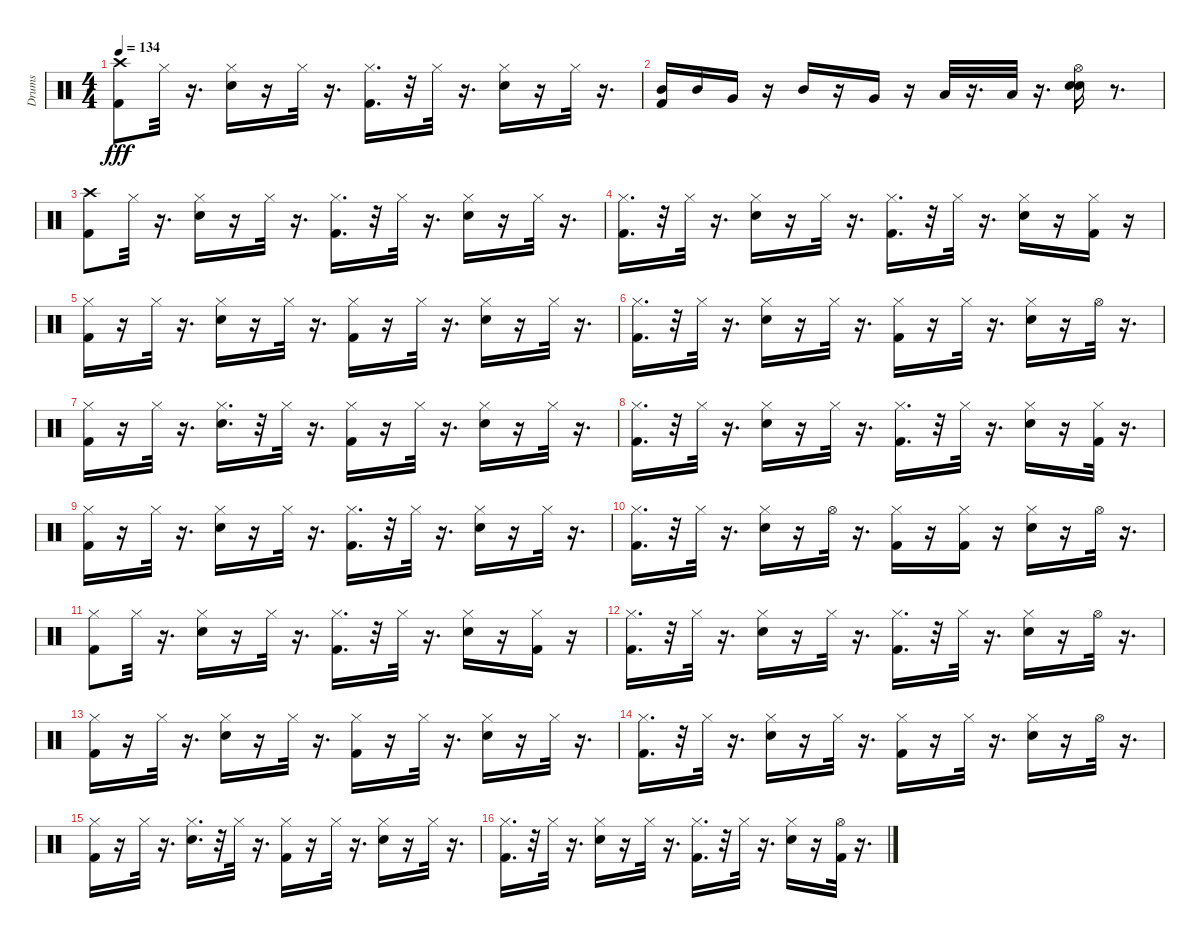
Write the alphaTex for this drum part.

\track ("Drums" "Drums") {instrument percussion}
\staff {score}
\articulation defaults
\ts (4 4)
\tempo 134
\clef neutral
\ks c
("Kick (hit) 2" "Crash high (hit)").8{dy fff} "Hi-Hat (closed)".32 r.16{d} ("Snare (hit) 2" "Hi-Hat (closed)").16 r.16 "Hi-Hat (closed)".32 r.16{d} ("Kick (hit) 2" "Hi-Hat (closed)").16{d} r.32 "Hi-Hat (closed)".32 r.16{d} ("Snare (hit) 2" "Hi-Hat (closed)").16 r.16 "Hi-Hat (closed)".32 r.16{d} |
("Kick (hit) 2" "Mid Tom (hit)").16 "Mid Tom (hit)".16 "Very Low Tom (hit)".16 r.16 "Mid Tom (hit)".16 r.16 "Very Low Tom (hit)".16 r.16 "Low Floor Tom (hit)".32 r.16{d} "Low Floor Tom (hit)".32 r.16{d} ("Snare (hit) 2" "Snare (hit) 2" "Hi-Hat (open)").16 r.8{d} |
("Kick (hit) 2" "Crash high (hit)").8 "Hi-Hat (closed)".32 r.16{d} ("Snare (hit) 2" "Hi-Hat (closed)").16 r.16 "Hi-Hat (closed)".32 r.16{d} ("Kick (hit) 2" "Hi-Hat (closed)").16{d} r.32 "Hi-Hat (closed)".32 r.16{d} ("Snare (hit) 2" "Hi-Hat (closed)").16 r.16 "Hi-Hat (closed)".32 r.16{d} |
("Kick (hit) 2" "Hi-Hat (closed)").16{d} r.32 "Hi-Hat (closed)".32 r.16{d} ("Snare (hit) 2" "Hi-Hat (closed)").16 r.16 "Hi-Hat (closed)".32 r.16{d} ("Kick (hit) 2" "Hi-Hat (closed)").16{d} r.32 "Hi-Hat (closed)".32 r.16{d} ("Snare (hit) 2" "Hi-Hat (closed)").16 r.16 ("Kick (hit) 2" "Hi-Hat (closed)").16 r.16 |
("Kick (hit) 2" "Hi-Hat (closed)").16 r.16 "Hi-Hat (closed)".32 r.16{d} ("Snare (hit) 2" "Hi-Hat (closed)").16 r.16 "Hi-Hat (closed)".32 r.16{d} ("Kick (hit) 2" "Hi-Hat (closed)").16 r.16 "Hi-Hat (closed)".32 r.16{d} ("Snare (hit) 2" "Hi-Hat (closed)").16 r.16 "Hi-Hat (closed)".32 r.16{d} |
("Kick (hit) 2" "Hi-Hat (closed)").16{d} r.32 "Hi-Hat (closed)".32 r.16{d} ("Snare (hit) 2" "Hi-Hat (closed)").16 r.16 "Hi-Hat (closed)".32 r.16{d} ("Kick (hit) 2" "Hi-Hat (closed)").16 r.16 "Hi-Hat (closed)".32 r.16{d} ("Snare (hit) 2" "Hi-Hat (closed)").16 r.16 "Hi-Hat (open)".32 r.16{d} |
("Kick (hit) 2" "Hi-Hat (closed)").16 r.16 "Hi-Hat (closed)".32 r.16{d} ("Snare (hit) 2" "Hi-Hat (closed)").16{d} r.32 "Hi-Hat (closed)".32 r.16{d} ("Kick (hit) 2" "Hi-Hat (closed)").16 r.16 "Hi-Hat (closed)".32 r.16{d} ("Snare (hit) 2" "Hi-Hat (closed)").16 r.16 "Hi-Hat (closed)".32 r.16{d} |
("Kick (hit) 2" "Hi-Hat (closed)").16{d} r.32 "Hi-Hat (closed)".32 r.16{d} ("Snare (hit) 2" "Hi-Hat (closed)").16 r.16 "Hi-Hat (closed)".32 r.16{d} ("Kick (hit) 2" "Hi-Hat (closed)").16{d} r.32 "Hi-Hat (closed)".32 r.16{d} ("Snare (hit) 2" "Hi-Hat (closed)").16 r.16 ("Kick (hit) 2" "Hi-Hat (closed)").32 r.16{d} |
("Kick (hit) 2" "Hi-Hat (closed)").16 r.16 "Hi-Hat (closed)".32 r.16{d} ("Snare (hit) 2" "Hi-Hat (closed)").16 r.16 "Hi-Hat (closed)".32 r.16{d} ("Kick (hit) 2" "Hi-Hat (closed)").16{d} r.32 "Hi-Hat (closed)".32 r.16{d} ("Snare (hit) 2" "Hi-Hat (closed)").16 r.16 "Hi-Hat (closed)".32 r.16{d} |
("Kick (hit) 2" "Hi-Hat (closed)").16{d} r.32 "Hi-Hat (closed)".32 r.16{d} ("Snare (hit) 2" "Hi-Hat (closed)").16 r.16 "Hi-Hat (open)".32 r.16{d} ("Kick (hit) 2" "Hi-Hat (closed)").16 r.16 ("Kick (hit) 2" "Hi-Hat (closed)").16 r.16 ("Snare (hit) 2" "Hi-Hat (closed)").16 r.16 "Hi-Hat (open)".32 r.16{d} |
("Kick (hit) 2" "Hi-Hat (closed)").8 "Hi-Hat (closed)".32 r.16{d} ("Snare (hit) 2" "Hi-Hat (closed)").16 r.16 "Hi-Hat (closed)".32 r.16{d} ("Kick (hit) 2" "Hi-Hat (closed)").16{d} r.32 "Hi-Hat (closed)".32 r.16{d} ("Snare (hit) 2" "Hi-Hat (closed)").16 r.16 ("Kick (hit) 2" "Hi-Hat (closed)").16 r.16 |
("Kick (hit) 2" "Hi-Hat (closed)").16{d} r.32 "Hi-Hat (closed)".32 r.16{d} ("Snare (hit) 2" "Hi-Hat (closed)").16 r.16 "Hi-Hat (closed)".32 r.16{d} ("Kick (hit) 2" "Hi-Hat (closed)").16{d} r.32 "Hi-Hat (closed)".32 r.16{d} ("Snare (hit) 2" "Hi-Hat (closed)").16 r.16 "Hi-Hat (open)".32 r.16{d} |
("Kick (hit) 2" "Hi-Hat (closed)").16 r.16 "Hi-Hat (closed)".32 r.16{d} ("Snare (hit) 2" "Hi-Hat (closed)").16 r.16 "Hi-Hat (closed)".32 r.16{d} ("Kick (hit) 2" "Hi-Hat (closed)").16 r.16 "Hi-Hat (closed)".32 r.16{d} ("Snare (hit) 2" "Hi-Hat (closed)").16 r.16 "Hi-Hat (closed)".32 r.16{d} |
("Kick (hit) 2" "Hi-Hat (closed)").16{d} r.32 "Hi-Hat (closed)".32 r.16{d} ("Snare (hit) 2" "Hi-Hat (closed)").16 r.16 "Hi-Hat (closed)".32 r.16{d} ("Kick (hit) 2" "Hi-Hat (closed)").16 r.16 "Hi-Hat (closed)".32 r.16{d} ("Snare (hit) 2" "Hi-Hat (closed)").16 r.16 "Hi-Hat (open)".32 r.16{d} |
("Kick (hit) 2" "Hi-Hat (closed)").16 r.16 "Hi-Hat (closed)".32 r.16{d} ("Snare (hit) 2" "Hi-Hat (closed)").16{d} r.32 "Hi-Hat (closed)".32 r.16{d} ("Kick (hit) 2" "Hi-Hat (closed)").16 r.16 "Hi-Hat (closed)".32 r.16{d} ("Snare (hit) 2" "Hi-Hat (closed)").16 r.16 "Hi-Hat (closed)".32 r.16{d} |
("Kick (hit) 2" "Hi-Hat (closed)").16{d} r.32 "Hi-Hat (closed)".32 r.16{d} ("Snare (hit) 2" "Hi-Hat (closed)").16 r.16 "Hi-Hat (closed)".32 r.16{d} ("Kick (hit) 2" "Hi-Hat (closed)").16{d} r.32 "Hi-Hat (closed)".32 r.16{d} ("Snare (hit) 2" "Hi-Hat (closed)").16 r.16 ("Kick (hit) 2" "Hi-Hat (open)").32 r.16{d}
